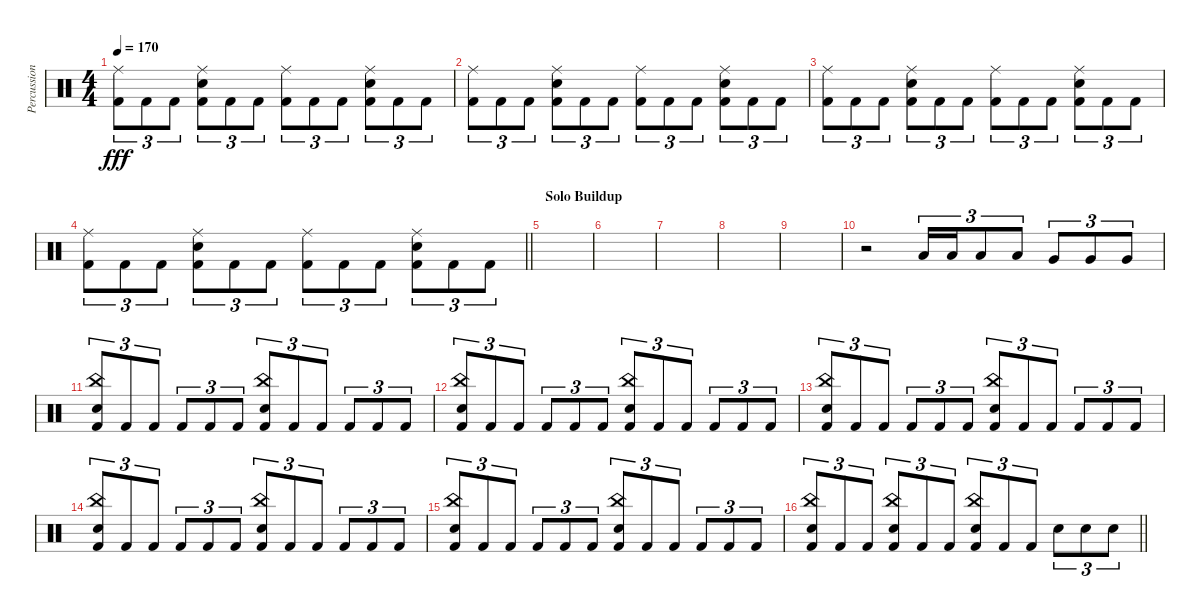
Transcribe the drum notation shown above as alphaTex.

\track ("Percussion" "Percussion") {instrument percussion}
\staff {score}
\articulation defaults
\ts (4 4)
\tempo 170
\clef neutral
\ks c
("Ride (middle)" "Kick (hit) 2").8{tu (3 2) dy fff} "Kick (hit) 2".8{tu (3 2)} "Kick (hit) 2".8{tu (3 2)} ("Ride (middle)" "Snare (hit) 2" "Kick (hit) 2").8{tu (3 2)} "Kick (hit) 2".8{tu (3 2)} "Kick (hit) 2".8{tu (3 2)} ("Ride (middle)" "Kick (hit) 2").8{tu (3 2)} "Kick (hit) 2".8{tu (3 2)} "Kick (hit) 2".8{tu (3 2)} ("Ride (middle)" "Snare (hit) 2" "Kick (hit) 2").8{tu (3 2)} "Kick (hit) 2".8{tu (3 2)} "Kick (hit) 2".8{tu (3 2)} |
("Ride (middle)" "Kick (hit) 2").8{tu (3 2)} "Kick (hit) 2".8{tu (3 2)} "Kick (hit) 2".8{tu (3 2)} ("Ride (middle)" "Snare (hit) 2" "Kick (hit) 2").8{tu (3 2)} "Kick (hit) 2".8{tu (3 2)} "Kick (hit) 2".8{tu (3 2)} ("Ride (middle)" "Kick (hit) 2").8{tu (3 2)} "Kick (hit) 2".8{tu (3 2)} "Kick (hit) 2".8{tu (3 2)} ("Ride (middle)" "Snare (hit) 2" "Kick (hit) 2").8{tu (3 2)} "Kick (hit) 2".8{tu (3 2)} "Kick (hit) 2".8{tu (3 2)} |
("Ride (middle)" "Kick (hit) 2").8{tu (3 2)} "Kick (hit) 2".8{tu (3 2)} "Kick (hit) 2".8{tu (3 2)} ("Ride (middle)" "Snare (hit) 2" "Kick (hit) 2").8{tu (3 2)} "Kick (hit) 2".8{tu (3 2)} "Kick (hit) 2".8{tu (3 2)} ("Ride (middle)" "Kick (hit) 2").8{tu (3 2)} "Kick (hit) 2".8{tu (3 2)} "Kick (hit) 2".8{tu (3 2)} ("Ride (middle)" "Snare (hit) 2" "Kick (hit) 2").8{tu (3 2)} "Kick (hit) 2".8{tu (3 2)} "Kick (hit) 2".8{tu (3 2)} |
\barLineRight lightlight
("Ride (middle)" "Kick (hit) 2").8{tu (3 2)} "Kick (hit) 2".8{tu (3 2)} "Kick (hit) 2".8{tu (3 2)} ("Ride (middle)" "Snare (hit) 2" "Kick (hit) 2").8{tu (3 2)} "Kick (hit) 2".8{tu (3 2)} "Kick (hit) 2".8{tu (3 2)} ("Ride (middle)" "Kick (hit) 2").8{tu (3 2)} "Kick (hit) 2".8{tu (3 2)} "Kick (hit) 2".8{tu (3 2)} ("Ride (middle)" "Snare (hit) 2" "Kick (hit) 2").8{tu (3 2)} "Kick (hit) 2".8{tu (3 2)} "Kick (hit) 2".8{tu (3 2)} |
\section ("" "Solo Buildup")
|
|
|
|
|
r.2 "Low Tom (hit)".16{tu (3 2)} "Low Tom (hit)".16{tu (3 2)} "Low Tom (hit)".8{tu (3 2)} "Low Tom (hit)".8{tu (3 2)} "Very Low Tom (hit)".8{tu (3 2)} "Very Low Tom (hit)".8{tu (3 2)} "Very Low Tom (hit)".8{tu (3 2)} |
("China (hit)" "Electric Snare (hit)" "Kick (hit) 2").8{tu (3 2)} "Kick (hit) 2".8{tu (3 2)} "Kick (hit) 2".8{tu (3 2)} "Kick (hit) 2".8{tu (3 2)} "Kick (hit) 2".8{tu (3 2)} "Kick (hit) 2".8{tu (3 2)} ("China (hit)" "Electric Snare (hit)" "Kick (hit) 2").8{tu (3 2)} "Kick (hit) 2".8{tu (3 2)} "Kick (hit) 2".8{tu (3 2)} "Kick (hit) 2".8{tu (3 2)} "Kick (hit) 2".8{tu (3 2)} "Kick (hit) 2".8{tu (3 2)} |
("China (hit)" "Electric Snare (hit)" "Kick (hit) 2").8{tu (3 2)} "Kick (hit) 2".8{tu (3 2)} "Kick (hit) 2".8{tu (3 2)} "Kick (hit) 2".8{tu (3 2)} "Kick (hit) 2".8{tu (3 2)} "Kick (hit) 2".8{tu (3 2)} ("China (hit)" "Electric Snare (hit)" "Kick (hit) 2").8{tu (3 2)} "Kick (hit) 2".8{tu (3 2)} "Kick (hit) 2".8{tu (3 2)} "Kick (hit) 2".8{tu (3 2)} "Kick (hit) 2".8{tu (3 2)} "Kick (hit) 2".8{tu (3 2)} |
("China (hit)" "Electric Snare (hit)" "Kick (hit) 2").8{tu (3 2)} "Kick (hit) 2".8{tu (3 2)} "Kick (hit) 2".8{tu (3 2)} "Kick (hit) 2".8{tu (3 2)} "Kick (hit) 2".8{tu (3 2)} "Kick (hit) 2".8{tu (3 2)} ("China (hit)" "Electric Snare (hit)" "Kick (hit) 2").8{tu (3 2)} "Kick (hit) 2".8{tu (3 2)} "Kick (hit) 2".8{tu (3 2)} "Kick (hit) 2".8{tu (3 2)} "Kick (hit) 2".8{tu (3 2)} "Kick (hit) 2".8{tu (3 2)} |
("China (hit)" "Electric Snare (hit)" "Kick (hit) 2").8{tu (3 2)} "Kick (hit) 2".8{tu (3 2)} "Kick (hit) 2".8{tu (3 2)} "Kick (hit) 2".8{tu (3 2)} "Kick (hit) 2".8{tu (3 2)} "Kick (hit) 2".8{tu (3 2)} ("China (hit)" "Electric Snare (hit)" "Kick (hit) 2").8{tu (3 2)} "Kick (hit) 2".8{tu (3 2)} "Kick (hit) 2".8{tu (3 2)} "Kick (hit) 2".8{tu (3 2)} "Kick (hit) 2".8{tu (3 2)} "Kick (hit) 2".8{tu (3 2)} |
("China (hit)" "Electric Snare (hit)" "Kick (hit) 2").8{tu (3 2)} "Kick (hit) 2".8{tu (3 2)} "Kick (hit) 2".8{tu (3 2)} "Kick (hit) 2".8{tu (3 2)} "Kick (hit) 2".8{tu (3 2)} "Kick (hit) 2".8{tu (3 2)} ("China (hit)" "Electric Snare (hit)" "Kick (hit) 2").8{tu (3 2)} "Kick (hit) 2".8{tu (3 2)} "Kick (hit) 2".8{tu (3 2)} "Kick (hit) 2".8{tu (3 2)} "Kick (hit) 2".8{tu (3 2)} "Kick (hit) 2".8{tu (3 2)} |
\barLineRight lightlight
("China (hit)" "Electric Snare (hit)" "Kick (hit) 2").8{tu (3 2)} "Kick (hit) 2".8{tu (3 2)} "Kick (hit) 2".8{tu (3 2)} ("China (hit)" "Electric Snare (hit)" "Kick (hit) 2").8{tu (3 2)} "Kick (hit) 2".8{tu (3 2)} "Kick (hit) 2".8{tu (3 2)} ("China (hit)" "Electric Snare (hit)" "Kick (hit) 2").8{tu (3 2)} "Kick (hit) 2".8{tu (3 2)} "Kick (hit) 2".8{tu (3 2)} "Electric Snare (hit)".8{tu (3 2)} "Electric Snare (hit)".8{tu (3 2)} "Electric Snare (hit)".8{tu (3 2)}
